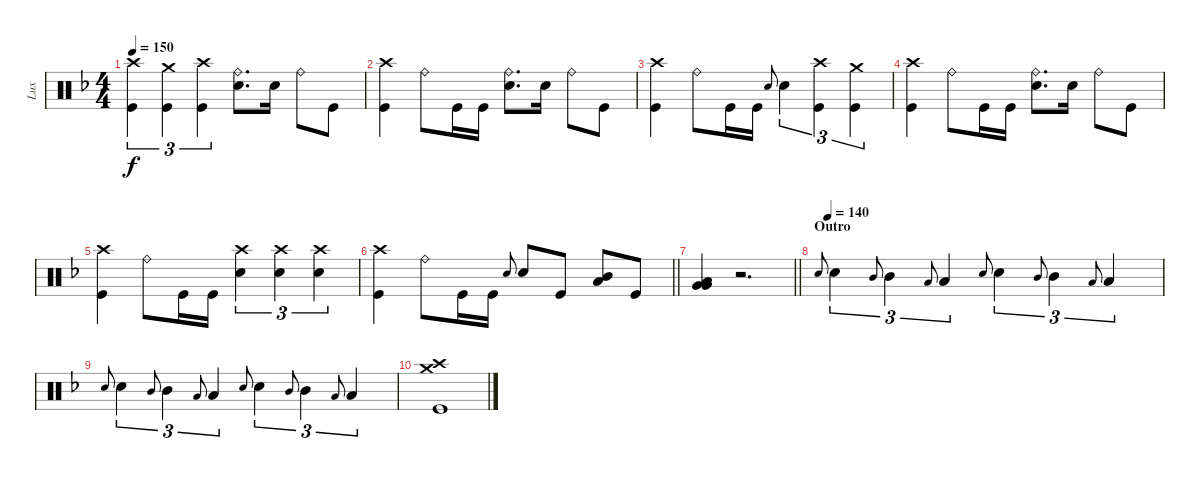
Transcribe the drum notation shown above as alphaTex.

\track ("Lux" "Lux") {instrument percussion}
\staff {score}
\articulation defaults
\ts (4 4)
\tempo 150
\clef neutral
\ks dminor
("Crash high (hit)" "Kick (hit)").4{tu (3 2) dy f} ("Crash medium (hit)" "Kick (hit)").4{tu (3 2)} ("Crash high (hit)" "Kick (hit)").4{tu (3 2)} ("Ride (bell)" "Snare (hit) 2").8{d} "Snare (hit) 2".16 "Ride (bell)".8 "Kick (hit)".8 |
("Crash high (hit)" "Kick (hit)").4 "Ride (bell)".8 "Kick (hit)".16 "Kick (hit)".16 ("Ride (bell)" "Snare (hit) 2").8{d} "Snare (hit) 2".16 "Ride (bell)".8 "Kick (hit)".8 |
("Crash high (hit)" "Kick (hit)").4 "Ride (bell)".8 "Kick (hit)".16 "Kick (hit)".16 "Snare (hit) 2".8{gr onbeat} "Snare (hit) 2".4{tu (3 2)} ("Crash high (hit)" "Kick (hit)").4{tu (3 2)} ("Crash medium (hit)" "Kick (hit)").4{tu (3 2)} |
("Crash high (hit)" "Kick (hit)").4 "Ride (bell)".8 "Kick (hit)".16 "Kick (hit)".16 ("Ride (bell)" "Snare (hit) 2").8{d} "Snare (hit) 2".16 "Ride (bell)".8 "Kick (hit)".8 |
("Crash high (hit)" "Kick (hit)").4 "Ride (bell)".8 "Kick (hit)".16 "Kick (hit)".16 ("Crash high (hit)" "Snare (hit) 2").4{tu (3 2)} ("Crash high (hit)" "Snare (hit) 2").4{tu (3 2)} ("Crash high (hit)" "Snare (hit) 2").4{tu (3 2)} |
\barLineRight lightlight
("Crash high (hit)" "Kick (hit)").4 "Ride (bell)".8 "Kick (hit)".16 "Kick (hit)".16 "Snare (hit) 2".8{gr onbeat} "Snare (hit) 2".8 "Kick (hit)".8 ("Mid Tom (hit)" "Low Tom (hit)").8 "Kick (hit)".8 |
\barLineRight lightlight
("Very Low Tom (hit)" "Very Low Tom (hit)" "Low Tom (hit)").4 r.2{d} |
\section ("" "Outro")
\tempo (140 0.03125)
"Snare (hit) 2".8{gr onbeat} "Snare (hit) 2".4{tu (3 2)} "Mid Tom (hit)".8{gr onbeat} "Mid Tom (hit)".4{tu (3 2)} "Low Tom (hit)".8{gr onbeat} "Low Tom (hit)".4{tu (3 2)} "Snare (hit) 2".8{gr onbeat} "Snare (hit) 2".4{tu (3 2)} "Mid Tom (hit)".8{gr onbeat} "Mid Tom (hit)".4{tu (3 2)} "Low Tom (hit)".8{gr onbeat} "Low Tom (hit)".4{tu (3 2)} |
"Snare (hit) 2".8{gr onbeat} "Snare (hit) 2".4{tu (3 2)} "Mid Tom (hit)".8{gr onbeat} "Mid Tom (hit)".4{tu (3 2)} "Low Tom (hit)".8{gr onbeat} "Low Tom (hit)".4{tu (3 2)} "Snare (hit) 2".8{gr onbeat} "Snare (hit) 2".4{tu (3 2)} "Mid Tom (hit)".8{gr onbeat} "Mid Tom (hit)".4{tu (3 2)} "Low Tom (hit)".8{gr onbeat} "Low Tom (hit)".4{tu (3 2)} |
("Crash high (hit)" "Crash medium (hit)" "Kick (hit)").1
